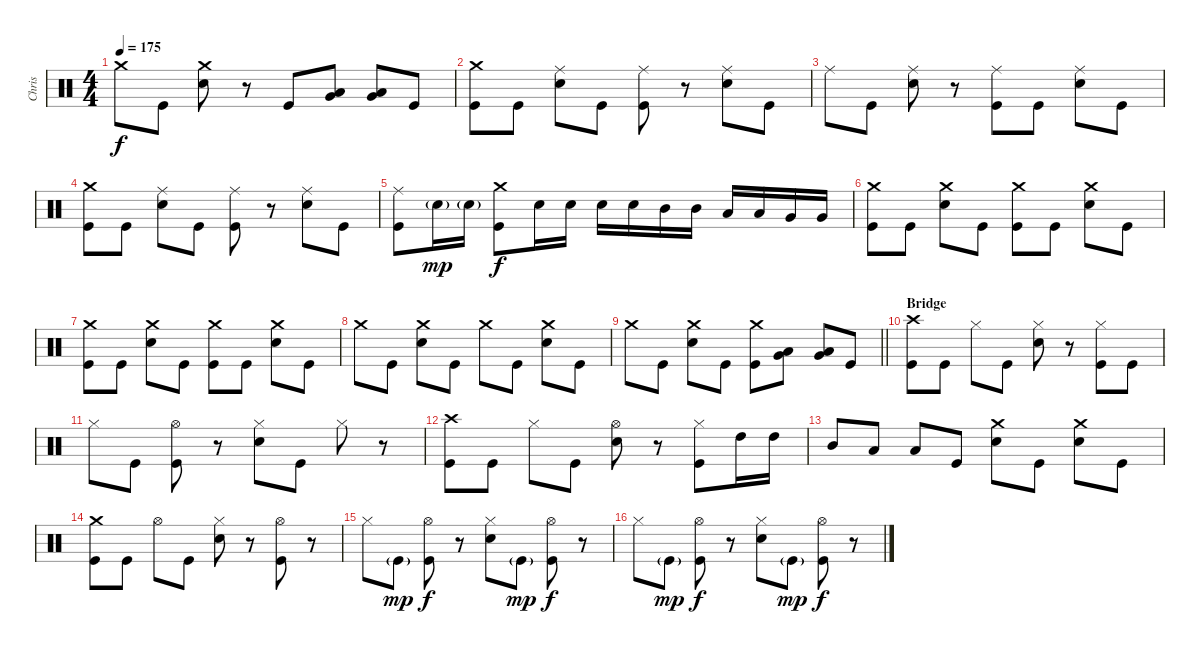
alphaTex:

\track ("Chris" "Chris") {instrument percussion}
\staff {score}
\articulation defaults
\ts (4 4)
\tempo 175
\clef neutral
\ks c "Crash medium (hit)".8{dy f} "Kick (hit)".8
("Crash medium (hit)" "Snare (hit) 2").8 r.8 "Kick (hit)".8 ("Low Tom (hit)" "Very Low Tom (hit)").8 ("Low Tom (hit)" "Very Low Tom (hit)").8 "Kick (hit)".8 |
("Crash medium (hit)" "Kick (hit)").8 "Kick (hit)".8 ("Ride (middle)" "Snare (hit) 2").8 "Kick (hit)".8 ("Ride (middle)" "Kick (hit)").8 r.8 ("Ride (middle)" "Snare (hit) 2").8 "Kick (hit)".8 |
"Ride (middle)".8 "Kick (hit)".8 ("Ride (middle)" "Snare (hit) 2").8 r.8 ("Ride (middle)" "Kick (hit)").8 "Kick (hit)".8 ("Ride (middle)" "Snare (hit) 2").8 "Kick (hit)".8 |
("Crash medium (hit)" "Kick (hit)").8 "Kick (hit)".8 ("Ride (middle)" "Snare (hit) 2").8 "Kick (hit)".8 ("Ride (middle)" "Kick (hit)").8 r.8 ("Ride (middle)" "Snare (hit) 2").8 "Kick (hit)".8 |
("Ride (middle)" "Kick (hit)").8 "Snare (hit) 2"{g}.16{dy mp} "Snare (hit) 2"{g}.16 ("Crash medium (hit)" "Kick (hit)").8{dy f} "Snare (hit) 2".16 "Snare (hit) 2".16 "Snare (hit) 2".16 "Snare (hit) 2".16 "Mid Tom (hit)".16 "Mid Tom (hit)".16 "Low Tom (hit)".16 "Low Tom (hit)".16 "Very Low Tom (hit)".16 "Very Low Tom (hit)".16 |
("Crash medium (hit)" "Kick (hit)").8 "Kick (hit)".8 ("Crash medium (hit)" "Snare (hit) 2").8 "Kick (hit)".8 ("Crash medium (hit)" "Kick (hit)").8 "Kick (hit)".8 ("Crash medium (hit)" "Snare (hit) 2").8 "Kick (hit)".8 |
("Crash medium (hit)" "Kick (hit)").8 "Kick (hit)".8 ("Crash medium (hit)" "Snare (hit) 2").8 "Kick (hit)".8 ("Crash medium (hit)" "Kick (hit)").8 "Kick (hit)".8 ("Crash medium (hit)" "Snare (hit) 2").8 "Kick (hit)".8 |
"Crash medium (hit)".8 "Kick (hit)".8 ("Crash medium (hit)" "Snare (hit) 2").8 "Kick (hit)".8 "Crash medium (hit)".8 "Kick (hit)".8 ("Crash medium (hit)" "Snare (hit) 2").8 "Kick (hit)".8 |
\barLineRight lightlight "Crash medium (hit)".8 "Kick (hit)".8
("Crash medium (hit)" "Snare (hit) 2").8 "Kick (hit)".8 ("Crash medium (hit)" "Kick (hit)").8 ("Very Low Tom (hit)" "Low Floor Tom (hit)").8 ("Very Low Tom (hit)" "Low Floor Tom (hit)").8 "Kick (hit)".8 |
\section ("" "Bridge")
("Crash high (hit)" "Kick (hit)").8 "Kick (hit)".8 "Hi-Hat (closed)".8 "Kick (hit)".8 ("Hi-Hat (closed)" "Snare (hit) 2").8 r.8 ("Hi-Hat (closed)" "Kick (hit)").8 "Kick (hit)".8 |
"Hi-Hat (closed)".8 "Kick (hit)".8 ("Hi-Hat (open)" "Kick (hit)").8 r.8 ("Hi-Hat (closed)" "Snare (hit) 2").8 "Kick (hit)".8 "Hi-Hat (closed)".8 r.8 |
("Crash high (hit)" "Kick (hit)").8 "Kick (hit)".8 "Hi-Hat (closed)".8 "Kick (hit)".8 ("Hi-Hat (open)" "Snare (hit) 2").8 r.8 ("Hi-Hat (closed)" "Kick (hit)").8 "High Tom (hit)".16 "High Tom (hit)".16 |
"Mid Tom (hit)".8 "Low Tom (hit)".8 "Low Tom (hit)".8 "Kick (hit)".8 ("Crash medium (hit)" "Snare (hit) 2").8 "Kick (hit)".8 ("Crash medium (hit)" "Snare (hit) 2").8 "Kick (hit)".8 |
("Crash medium (hit)" "Kick (hit)").8 "Kick (hit)".8 "Hi-Hat (open)".8 "Kick (hit)".8 ("Hi-Hat (closed)" "Snare (hit) 2").8 r.8 ("Hi-Hat (open)" "Kick (hit)").8 r.8 |
"Hi-Hat (closed)".8 "Kick (hit)"{g}.8{dy mp} ("Hi-Hat (open)" "Kick (hit)").8{dy f} r.8 ("Hi-Hat (closed)" "Snare (hit) 2").8 "Kick (hit)"{g}.8{dy mp} ("Hi-Hat (open)" "Kick (hit)").8{dy f} r.8 |
"Hi-Hat (closed)".8 "Kick (hit)"{g}.8{dy mp} ("Hi-Hat (open)" "Kick (hit)").8{dy f} r.8 ("Hi-Hat (closed)" "Snare (hit) 2").8 "Kick (hit)"{g}.8{dy mp} ("Hi-Hat (open)" "Kick (hit)").8{dy f} r.8
